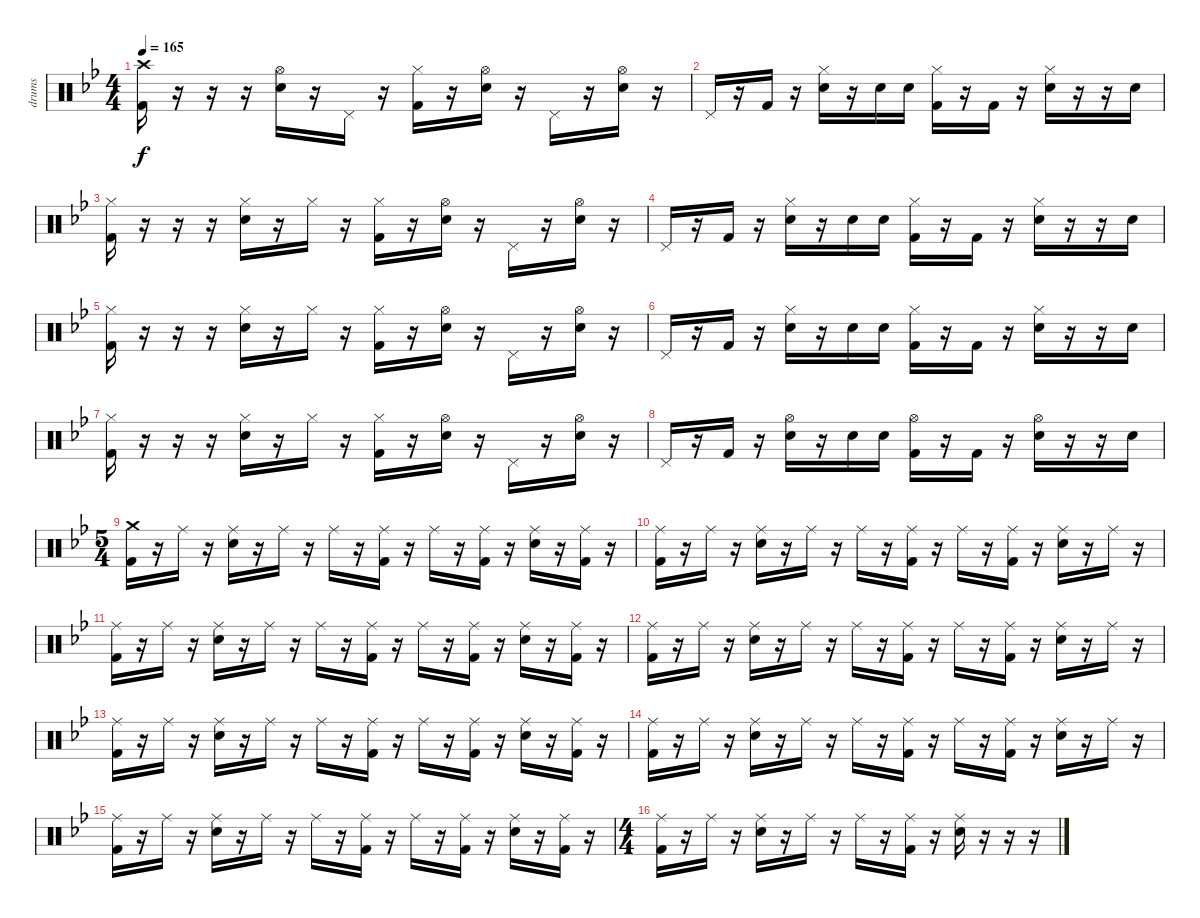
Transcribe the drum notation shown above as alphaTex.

\track ("drums" "drums") {instrument percussion}
\staff {score}
\articulation defaults
\ts (4 4)
\tempo 165
\clef neutral
\ks bb
("Crash high (hit)" "Kick (hit) 2").16{dy f} r.16 r.16 r.16 ("Hi-Hat (open)" "Snare (hit) 2").16 r.16 "Pedal Hi-Hat (hit)".16 r.16 ("Hi-Hat (closed)" "Kick (hit) 2").16 r.16 ("Hi-Hat (open)" "Snare (hit) 2").16 r.16 "Pedal Hi-Hat (hit)".16 r.16 ("Hi-Hat (open)" "Snare (hit) 2").16 r.16 |
"Pedal Hi-Hat (hit)".16 r.16 "Kick (hit) 2".16 r.16 ("Hi-Hat (closed)" "Snare (hit) 2").16 r.16 "Snare (hit) 2".16 "Snare (hit) 2".16 ("Hi-Hat (closed)" "Kick (hit) 2").16 r.16 "Kick (hit) 2".16 r.16 ("Hi-Hat (closed)" "Snare (hit) 2").16 r.16 r.16 "Snare (hit) 2".16 |
("Hi-Hat (closed)" "Kick (hit) 2").16 r.16 r.16 r.16 ("Hi-Hat (closed)" "Snare (hit) 2").16 r.16 "Hi-Hat (closed)".16 r.16 ("Hi-Hat (closed)" "Kick (hit) 2").16 r.16 ("Hi-Hat (open)" "Snare (hit) 2").16 r.16 "Pedal Hi-Hat (hit)".16 r.16 ("Hi-Hat (open)" "Snare (hit) 2").16 r.16 |
"Pedal Hi-Hat (hit)".16 r.16 "Kick (hit) 2".16 r.16 ("Hi-Hat (closed)" "Snare (hit) 2").16 r.16 "Snare (hit) 2".16 "Snare (hit) 2".16 ("Hi-Hat (closed)" "Kick (hit) 2").16 r.16 "Kick (hit) 2".16 r.16 ("Hi-Hat (closed)" "Snare (hit) 2").16 r.16 r.16 "Snare (hit) 2".16 |
("Hi-Hat (closed)" "Kick (hit) 2").16 r.16 r.16 r.16 ("Hi-Hat (closed)" "Snare (hit) 2").16 r.16 "Hi-Hat (closed)".16 r.16 ("Hi-Hat (closed)" "Kick (hit) 2").16 r.16 ("Hi-Hat (open)" "Snare (hit) 2").16 r.16 "Pedal Hi-Hat (hit)".16 r.16 ("Hi-Hat (open)" "Snare (hit) 2").16 r.16 |
"Pedal Hi-Hat (hit)".16 r.16 "Kick (hit) 2".16 r.16 ("Hi-Hat (closed)" "Snare (hit) 2").16 r.16 "Snare (hit) 2".16 "Snare (hit) 2".16 ("Hi-Hat (closed)" "Kick (hit) 2").16 r.16 "Kick (hit) 2".16 r.16 ("Hi-Hat (closed)" "Snare (hit) 2").16 r.16 r.16 "Snare (hit) 2".16 |
("Hi-Hat (closed)" "Kick (hit) 2").16 r.16 r.16 r.16 ("Hi-Hat (closed)" "Snare (hit) 2").16 r.16 "Hi-Hat (closed)".16 r.16 ("Hi-Hat (closed)" "Kick (hit) 2").16 r.16 ("Hi-Hat (open)" "Snare (hit) 2").16 r.16 "Pedal Hi-Hat (hit)".16 r.16 ("Hi-Hat (open)" "Snare (hit) 2").16 r.16 |
"Pedal Hi-Hat (hit)".16 r.16 "Kick (hit) 2".16 r.16 ("Hi-Hat (open)" "Snare (hit) 2").16 r.16 "Snare (hit) 2".16 "Snare (hit) 2".16 ("Hi-Hat (open)" "Kick (hit) 2").16 r.16 "Kick (hit) 2".16 r.16 ("Hi-Hat (open)" "Snare (hit) 2").16 r.16 r.16 "Snare (hit) 2".16 |
\ts (5 4)
("Crash medium (hit)" "Kick (hit) 2").16 r.16 "Ride (middle)".16 r.16 ("Ride (middle)" "Snare (hit) 2").16 r.16 "Ride (middle)".16 r.16 "Ride (middle)".16 r.16 ("Ride (middle)" "Kick (hit) 2").16 r.16 "Ride (middle)".16 r.16 ("Ride (middle)" "Kick (hit) 2").16 r.16 ("Ride (middle)" "Snare (hit) 2").16 r.16 ("Ride (middle)" "Kick (hit) 2").16 r.16 |
("Ride (middle)" "Kick (hit) 2").16 r.16 "Ride (middle)".16 r.16 ("Ride (middle)" "Snare (hit) 2").16 r.16 "Ride (middle)".16 r.16 "Ride (middle)".16 r.16 ("Ride (middle)" "Kick (hit) 2").16 r.16 "Ride (middle)".16 r.16 ("Ride (middle)" "Kick (hit) 2").16 r.16 ("Ride (middle)" "Snare (hit) 2").16 r.16 "Ride (middle)".16 r.16 |
("Ride (middle)" "Kick (hit) 2").16 r.16 "Ride (middle)".16 r.16 ("Ride (middle)" "Snare (hit) 2").16 r.16 "Ride (middle)".16 r.16 "Ride (middle)".16 r.16 ("Ride (middle)" "Kick (hit) 2").16 r.16 "Ride (middle)".16 r.16 ("Ride (middle)" "Kick (hit) 2").16 r.16 ("Ride (middle)" "Snare (hit) 2").16 r.16 ("Ride (middle)" "Kick (hit) 2").16 r.16 |
("Ride (middle)" "Kick (hit) 2").16 r.16 "Ride (middle)".16 r.16 ("Ride (middle)" "Snare (hit) 2").16 r.16 "Ride (middle)".16 r.16 "Ride (middle)".16 r.16 ("Ride (middle)" "Kick (hit) 2").16 r.16 "Ride (middle)".16 r.16 ("Ride (middle)" "Kick (hit) 2").16 r.16 ("Ride (middle)" "Snare (hit) 2").16 r.16 "Ride (middle)".16 r.16 |
("Ride (middle)" "Kick (hit) 2").16 r.16 "Ride (middle)".16 r.16 ("Ride (middle)" "Snare (hit) 2").16 r.16 "Ride (middle)".16 r.16 "Ride (middle)".16 r.16 ("Ride (middle)" "Kick (hit) 2").16 r.16 "Ride (middle)".16 r.16 ("Ride (middle)" "Kick (hit) 2").16 r.16 ("Ride (middle)" "Snare (hit) 2").16 r.16 ("Ride (middle)" "Kick (hit) 2").16 r.16 |
("Ride (middle)" "Kick (hit) 2").16 r.16 "Ride (middle)".16 r.16 ("Ride (middle)" "Snare (hit) 2").16 r.16 "Ride (middle)".16 r.16 "Ride (middle)".16 r.16 ("Ride (middle)" "Kick (hit) 2").16 r.16 "Ride (middle)".16 r.16 ("Ride (middle)" "Kick (hit) 2").16 r.16 ("Ride (middle)" "Snare (hit) 2").16 r.16 "Ride (middle)".16 r.16 |
("Ride (middle)" "Kick (hit) 2").16 r.16 "Ride (middle)".16 r.16 ("Ride (middle)" "Snare (hit) 2").16 r.16 "Ride (middle)".16 r.16 "Ride (middle)".16 r.16 ("Ride (middle)" "Kick (hit) 2").16 r.16 "Ride (middle)".16 r.16 ("Ride (middle)" "Kick (hit) 2").16 r.16 ("Ride (middle)" "Snare (hit) 2").16 r.16 ("Ride (middle)" "Kick (hit) 2").16 r.16 |
\ts (4 4)
("Ride (middle)" "Kick (hit) 2").16 r.16 "Ride (middle)".16 r.16 ("Ride (middle)" "Snare (hit) 2").16 r.16 "Ride (middle)".16 r.16 "Ride (middle)".16 r.16 ("Ride (middle)" "Kick (hit) 2").16 r.16 ("Ride (middle)" "Snare (hit) 2").16 r.16 r.16 r.16
